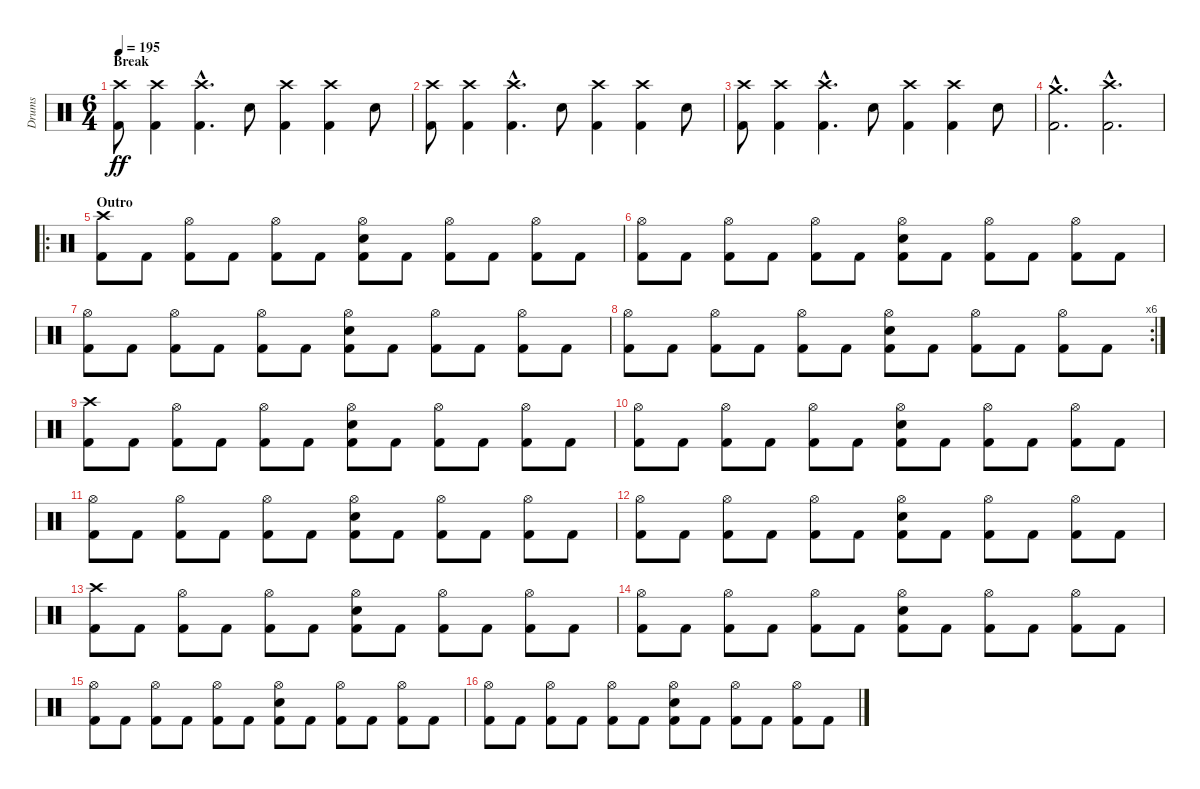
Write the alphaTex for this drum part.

\track ("Drums" "Drums") {instrument percussion}
\staff {score}
\articulation defaults
\ts (6 4)
\section ("" "Break")
\tempo 195
\clef neutral
\ks c
("Crash high (hit)" "Kick (hit) 2").8{dy ff} ("Crash high (hit)" "Kick (hit) 2").4 ("Crash high (hit)"{hac} "Kick (hit) 2"{hac}).4{d} "Electric Snare (hit)".8 ("Crash high (hit)" "Kick (hit) 2").4 ("Crash high (hit)" "Kick (hit) 2").4 "Electric Snare (hit)".8 |
("Crash high (hit)" "Kick (hit) 2").8 ("Crash high (hit)" "Kick (hit) 2").4 ("Crash high (hit)"{hac} "Kick (hit) 2"{hac}).4{d} "Electric Snare (hit)".8 ("Crash high (hit)" "Kick (hit) 2").4 ("Crash high (hit)" "Kick (hit) 2").4 "Electric Snare (hit)".8 |
("Crash high (hit)" "Kick (hit) 2").8 ("Crash high (hit)" "Kick (hit) 2").4 ("Crash high (hit)"{hac} "Kick (hit) 2"{hac}).4{d} "Electric Snare (hit)".8 ("Crash high (hit)" "Kick (hit) 2").4 ("Crash high (hit)" "Kick (hit) 2").4 "Electric Snare (hit)".8 |
("Crash medium (hit)"{hac} "Kick (hit) 2"{hac}).2{d} ("Crash high (hit)"{hac} "Kick (hit) 2"{hac}).2{d} |
\ro
\section ("" "Outro")
("Crash high (hit)" "Kick (hit) 2").8 "Kick (hit) 2".8 ("Hi-Hat (open)" "Kick (hit) 2").8 "Kick (hit) 2".8 ("Hi-Hat (open)" "Kick (hit) 2").8 "Kick (hit) 2".8 ("Hi-Hat (open)" "Electric Snare (hit)" "Kick (hit) 2").8 "Kick (hit) 2".8 ("Hi-Hat (open)" "Kick (hit) 2").8 "Kick (hit) 2".8 ("Hi-Hat (open)" "Kick (hit) 2").8 "Kick (hit) 2".8 |
("Hi-Hat (open)" "Kick (hit) 2").8 "Kick (hit) 2".8 ("Hi-Hat (open)" "Kick (hit) 2").8 "Kick (hit) 2".8 ("Hi-Hat (open)" "Kick (hit) 2").8 "Kick (hit) 2".8 ("Hi-Hat (open)" "Electric Snare (hit)" "Kick (hit) 2").8 "Kick (hit) 2".8 ("Hi-Hat (open)" "Kick (hit) 2").8 "Kick (hit) 2".8 ("Hi-Hat (open)" "Kick (hit) 2").8 "Kick (hit) 2".8 |
("Hi-Hat (open)" "Kick (hit) 2").8 "Kick (hit) 2".8 ("Hi-Hat (open)" "Kick (hit) 2").8 "Kick (hit) 2".8 ("Hi-Hat (open)" "Kick (hit) 2").8 "Kick (hit) 2".8 ("Hi-Hat (open)" "Electric Snare (hit)" "Kick (hit) 2").8 "Kick (hit) 2".8 ("Hi-Hat (open)" "Kick (hit) 2").8 "Kick (hit) 2".8 ("Hi-Hat (open)" "Kick (hit) 2").8 "Kick (hit) 2".8 |
\rc 6
("Hi-Hat (open)" "Kick (hit) 2").8 "Kick (hit) 2".8 ("Hi-Hat (open)" "Kick (hit) 2").8 "Kick (hit) 2".8 ("Hi-Hat (open)" "Kick (hit) 2").8 "Kick (hit) 2".8 ("Hi-Hat (open)" "Electric Snare (hit)" "Kick (hit) 2").8 "Kick (hit) 2".8 ("Hi-Hat (open)" "Kick (hit) 2").8 "Kick (hit) 2".8 ("Hi-Hat (open)" "Kick (hit) 2").8 "Kick (hit) 2".8 |
("Crash high (hit)" "Kick (hit) 2").8 "Kick (hit) 2".8 ("Hi-Hat (open)" "Kick (hit) 2").8 "Kick (hit) 2".8 ("Hi-Hat (open)" "Kick (hit) 2").8 "Kick (hit) 2".8 ("Hi-Hat (open)" "Electric Snare (hit)" "Kick (hit) 2").8 "Kick (hit) 2".8 ("Hi-Hat (open)" "Kick (hit) 2").8 "Kick (hit) 2".8 ("Hi-Hat (open)" "Kick (hit) 2").8 "Kick (hit) 2".8 |
("Hi-Hat (open)" "Kick (hit) 2").8 "Kick (hit) 2".8 ("Hi-Hat (open)" "Kick (hit) 2").8 "Kick (hit) 2".8 ("Hi-Hat (open)" "Kick (hit) 2").8 "Kick (hit) 2".8 ("Hi-Hat (open)" "Electric Snare (hit)" "Kick (hit) 2").8 "Kick (hit) 2".8 ("Hi-Hat (open)" "Kick (hit) 2").8 "Kick (hit) 2".8 ("Hi-Hat (open)" "Kick (hit) 2").8 "Kick (hit) 2".8 |
("Hi-Hat (open)" "Kick (hit) 2").8 "Kick (hit) 2".8 ("Hi-Hat (open)" "Kick (hit) 2").8 "Kick (hit) 2".8 ("Hi-Hat (open)" "Kick (hit) 2").8 "Kick (hit) 2".8 ("Hi-Hat (open)" "Electric Snare (hit)" "Kick (hit) 2").8 "Kick (hit) 2".8 ("Hi-Hat (open)" "Kick (hit) 2").8 "Kick (hit) 2".8 ("Hi-Hat (open)" "Kick (hit) 2").8 "Kick (hit) 2".8 |
("Hi-Hat (open)" "Kick (hit) 2").8 "Kick (hit) 2".8 ("Hi-Hat (open)" "Kick (hit) 2").8 "Kick (hit) 2".8 ("Hi-Hat (open)" "Kick (hit) 2").8 "Kick (hit) 2".8 ("Hi-Hat (open)" "Electric Snare (hit)" "Kick (hit) 2").8 "Kick (hit) 2".8 ("Hi-Hat (open)" "Kick (hit) 2").8 "Kick (hit) 2".8 ("Hi-Hat (open)" "Kick (hit) 2").8 "Kick (hit) 2".8 |
("Crash high (hit)" "Kick (hit) 2").8 "Kick (hit) 2".8 ("Hi-Hat (open)" "Kick (hit) 2").8 "Kick (hit) 2".8 ("Hi-Hat (open)" "Kick (hit) 2").8 "Kick (hit) 2".8 ("Hi-Hat (open)" "Electric Snare (hit)" "Kick (hit) 2").8 "Kick (hit) 2".8 ("Hi-Hat (open)" "Kick (hit) 2").8 "Kick (hit) 2".8 ("Hi-Hat (open)" "Kick (hit) 2").8 "Kick (hit) 2".8 |
("Hi-Hat (open)" "Kick (hit) 2").8 "Kick (hit) 2".8 ("Hi-Hat (open)" "Kick (hit) 2").8 "Kick (hit) 2".8 ("Hi-Hat (open)" "Kick (hit) 2").8 "Kick (hit) 2".8 ("Hi-Hat (open)" "Electric Snare (hit)" "Kick (hit) 2").8 "Kick (hit) 2".8 ("Hi-Hat (open)" "Kick (hit) 2").8 "Kick (hit) 2".8 ("Hi-Hat (open)" "Kick (hit) 2").8 "Kick (hit) 2".8 |
("Hi-Hat (open)" "Kick (hit) 2").8 "Kick (hit) 2".8 ("Hi-Hat (open)" "Kick (hit) 2").8 "Kick (hit) 2".8 ("Hi-Hat (open)" "Kick (hit) 2").8 "Kick (hit) 2".8 ("Hi-Hat (open)" "Electric Snare (hit)" "Kick (hit) 2").8 "Kick (hit) 2".8 ("Hi-Hat (open)" "Kick (hit) 2").8 "Kick (hit) 2".8 ("Hi-Hat (open)" "Kick (hit) 2").8 "Kick (hit) 2".8 |
("Hi-Hat (open)" "Kick (hit) 2").8 "Kick (hit) 2".8 ("Hi-Hat (open)" "Kick (hit) 2").8 "Kick (hit) 2".8 ("Hi-Hat (open)" "Kick (hit) 2").8 "Kick (hit) 2".8 ("Hi-Hat (open)" "Electric Snare (hit)" "Kick (hit) 2").8 "Kick (hit) 2".8 ("Hi-Hat (open)" "Kick (hit) 2").8 "Kick (hit) 2".8 ("Hi-Hat (open)" "Kick (hit) 2").8 "Kick (hit) 2".8
